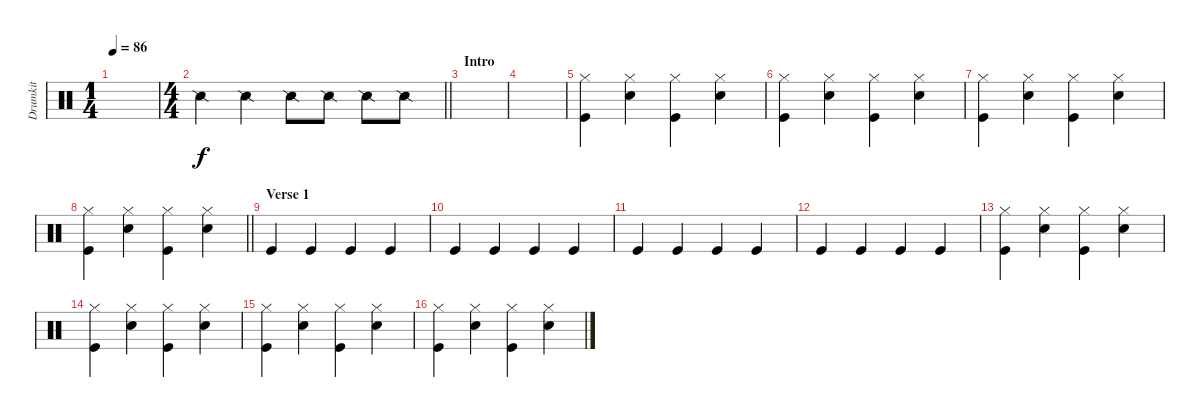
\track ("Drumkit" "Drumkit") {instrument percussion}
\staff {score}
\articulation defaults
\ts (1 4)
\tempo 86
\clef neutral
\ks c
|
\ts (4 4)
\barLineRight lightlight "Snare (side stick) 2".4 "Snare (side stick) 2".4 "Snare (side stick) 2".8 "Snare (side stick) 2".8 "Snare (side stick) 2".8 "Snare (side stick) 2".8
|
\section ("" "Intro")
|
|
("Kick (hit)" "Hi-Hat (closed)").4 ("Snare (hit) 2" "Hi-Hat (closed)").4 ("Hi-Hat (closed)" "Kick (hit)").4 ("Snare (hit) 2" "Hi-Hat (closed)").4 |
("Kick (hit)" "Hi-Hat (closed)").4 ("Snare (hit) 2" "Hi-Hat (closed)").4 ("Hi-Hat (closed)" "Kick (hit)").4 ("Snare (hit) 2" "Hi-Hat (closed)").4 |
("Kick (hit)" "Hi-Hat (closed)").4 ("Snare (hit) 2" "Hi-Hat (closed)").4 ("Hi-Hat (closed)" "Kick (hit)").4 ("Snare (hit) 2" "Hi-Hat (closed)").4 |
\barLineRight lightlight
("Kick (hit)" "Hi-Hat (closed)").4 ("Snare (hit) 2" "Hi-Hat (closed)").4 ("Hi-Hat (closed)" "Kick (hit)").4 ("Snare (hit) 2" "Hi-Hat (closed)").4 |
\section ("" "Verse 1")
"Kick (hit)".4 "Kick (hit)".4 "Kick (hit)".4 "Kick (hit)".4 |
"Kick (hit)".4 "Kick (hit)".4 "Kick (hit)".4 "Kick (hit)".4 |
"Kick (hit)".4 "Kick (hit)".4 "Kick (hit)".4 "Kick (hit)".4 |
"Kick (hit)".4 "Kick (hit)".4 "Kick (hit)".4 "Kick (hit)".4 |
("Kick (hit)" "Hi-Hat (closed)").4 ("Snare (hit) 2" "Hi-Hat (closed)").4 ("Hi-Hat (closed)" "Kick (hit)").4 ("Snare (hit) 2" "Hi-Hat (closed)").4 |
("Kick (hit)" "Hi-Hat (closed)").4 ("Snare (hit) 2" "Hi-Hat (closed)").4 ("Hi-Hat (closed)" "Kick (hit)").4 ("Snare (hit) 2" "Hi-Hat (closed)").4 |
("Kick (hit)" "Hi-Hat (closed)").4 ("Snare (hit) 2" "Hi-Hat (closed)").4 ("Hi-Hat (closed)" "Kick (hit)").4 ("Snare (hit) 2" "Hi-Hat (closed)").4 |
("Kick (hit)" "Hi-Hat (closed)").4 ("Snare (hit) 2" "Hi-Hat (closed)").4 ("Hi-Hat (closed)" "Kick (hit)").4 ("Snare (hit) 2" "Hi-Hat (closed)").4
